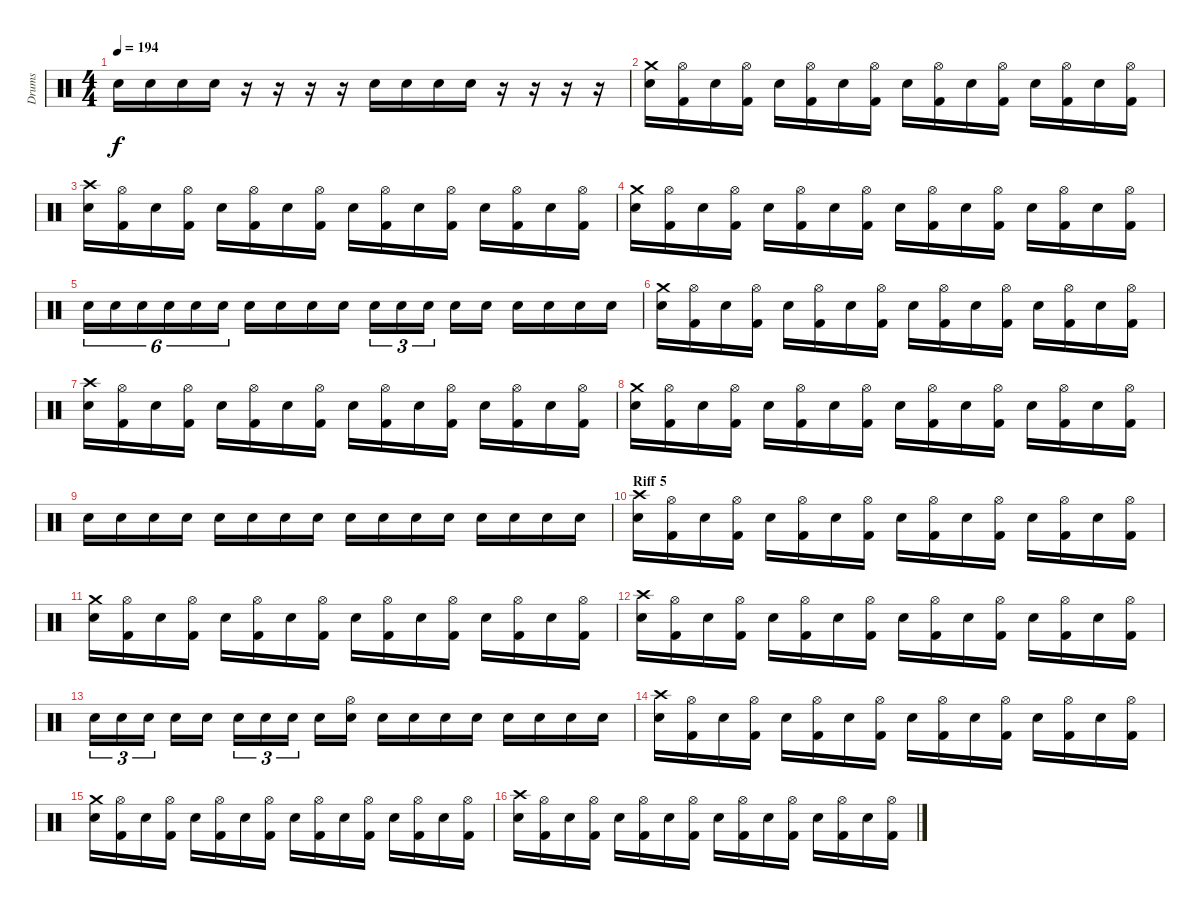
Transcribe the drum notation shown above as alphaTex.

\track ("Drums" "Drums") {instrument percussion}
\staff {score}
\articulation defaults
\ts (4 4)
\tempo 194
\clef neutral
\ks c "Electric Snare (hit)".16{dy f} "Electric Snare (hit)".16 "Electric Snare (hit)".16 "Electric Snare (hit)".16
r.16 r.16 r.16 r.16 "Electric Snare (hit)".16 "Electric Snare (hit)".16 "Electric Snare (hit)".16 "Electric Snare (hit)".16 r.16 r.16 r.16 r.16 |
("Crash medium (hit)" "Electric Snare (hit)").16 ("Hi-Hat (open)" "Kick (hit) 2").16 "Electric Snare (hit)".16 ("Hi-Hat (open)" "Kick (hit) 2").16 "Electric Snare (hit)".16 ("Hi-Hat (open)" "Kick (hit) 2").16 "Electric Snare (hit)".16 ("Hi-Hat (open)" "Kick (hit) 2").16 "Electric Snare (hit)".16 ("Hi-Hat (open)" "Kick (hit) 2").16 "Electric Snare (hit)".16 ("Hi-Hat (open)" "Kick (hit) 2").16 "Electric Snare (hit)".16 ("Hi-Hat (open)" "Kick (hit) 2").16 "Electric Snare (hit)".16 ("Hi-Hat (open)" "Kick (hit) 2").16 |
("Crash high (hit)" "Electric Snare (hit)").16 ("Hi-Hat (open)" "Kick (hit) 2").16 "Electric Snare (hit)".16 ("Hi-Hat (open)" "Kick (hit) 2").16 "Electric Snare (hit)".16 ("Hi-Hat (open)" "Kick (hit) 2").16 "Electric Snare (hit)".16 ("Hi-Hat (open)" "Kick (hit) 2").16 "Electric Snare (hit)".16 ("Hi-Hat (open)" "Kick (hit) 2").16 "Electric Snare (hit)".16 ("Hi-Hat (open)" "Kick (hit) 2").16 "Electric Snare (hit)".16 ("Hi-Hat (open)" "Kick (hit) 2").16 "Electric Snare (hit)".16 ("Hi-Hat (open)" "Kick (hit) 2").16 |
("Crash medium (hit)" "Electric Snare (hit)").16 ("Hi-Hat (open)" "Kick (hit) 2").16 "Electric Snare (hit)".16 ("Hi-Hat (open)" "Kick (hit) 2").16 "Electric Snare (hit)".16 ("Hi-Hat (open)" "Kick (hit) 2").16 "Electric Snare (hit)".16 ("Hi-Hat (open)" "Kick (hit) 2").16 "Electric Snare (hit)".16 ("Hi-Hat (open)" "Kick (hit) 2").16 "Electric Snare (hit)".16 ("Hi-Hat (open)" "Kick (hit) 2").16 "Electric Snare (hit)".16 ("Hi-Hat (open)" "Kick (hit) 2").16 "Electric Snare (hit)".16 ("Hi-Hat (open)" "Kick (hit) 2").16 |
"Electric Snare (hit)".16{tu (6 4)} "Electric Snare (hit)".16{tu (6 4)} "Electric Snare (hit)".16{tu (6 4)} "Electric Snare (hit)".16{tu (6 4)} "Electric Snare (hit)".16{tu (6 4)} "Electric Snare (hit)".16{tu (6 4)} "Electric Snare (hit)".16 "Electric Snare (hit)".16 "Electric Snare (hit)".16 "Electric Snare (hit)".16 "Electric Snare (hit)".16{tu (3 2)} "Electric Snare (hit)".16{tu (3 2)} "Electric Snare (hit)".16{tu (3 2)} "Electric Snare (hit)".16 "Electric Snare (hit)".16 "Electric Snare (hit)".16 "Electric Snare (hit)".16 "Electric Snare (hit)".16 "Electric Snare (hit)".16 |
("Crash medium (hit)" "Electric Snare (hit)").16 ("Hi-Hat (open)" "Kick (hit) 2").16 "Electric Snare (hit)".16 ("Hi-Hat (open)" "Kick (hit) 2").16 "Electric Snare (hit)".16 ("Hi-Hat (open)" "Kick (hit) 2").16 "Electric Snare (hit)".16 ("Hi-Hat (open)" "Kick (hit) 2").16 "Electric Snare (hit)".16 ("Hi-Hat (open)" "Kick (hit) 2").16 "Electric Snare (hit)".16 ("Hi-Hat (open)" "Kick (hit) 2").16 "Electric Snare (hit)".16 ("Hi-Hat (open)" "Kick (hit) 2").16 "Electric Snare (hit)".16 ("Hi-Hat (open)" "Kick (hit) 2").16 |
("Crash high (hit)" "Electric Snare (hit)").16 ("Hi-Hat (open)" "Kick (hit) 2").16 "Electric Snare (hit)".16 ("Hi-Hat (open)" "Kick (hit) 2").16 "Electric Snare (hit)".16 ("Hi-Hat (open)" "Kick (hit) 2").16 "Electric Snare (hit)".16 ("Hi-Hat (open)" "Kick (hit) 2").16 "Electric Snare (hit)".16 ("Hi-Hat (open)" "Kick (hit) 2").16 "Electric Snare (hit)".16 ("Hi-Hat (open)" "Kick (hit) 2").16 "Electric Snare (hit)".16 ("Hi-Hat (open)" "Kick (hit) 2").16 "Electric Snare (hit)".16 ("Hi-Hat (open)" "Kick (hit) 2").16 |
("Crash medium (hit)" "Electric Snare (hit)").16 ("Hi-Hat (open)" "Kick (hit) 2").16 "Electric Snare (hit)".16 ("Hi-Hat (open)" "Kick (hit) 2").16 "Electric Snare (hit)".16 ("Hi-Hat (open)" "Kick (hit) 2").16 "Electric Snare (hit)".16 ("Hi-Hat (open)" "Kick (hit) 2").16 "Electric Snare (hit)".16 ("Hi-Hat (open)" "Kick (hit) 2").16 "Electric Snare (hit)".16 ("Hi-Hat (open)" "Kick (hit) 2").16 "Electric Snare (hit)".16 ("Hi-Hat (open)" "Kick (hit) 2").16 "Electric Snare (hit)".16 ("Hi-Hat (open)" "Kick (hit) 2").16 |
"Electric Snare (hit)".16 "Electric Snare (hit)".16 "Electric Snare (hit)".16 "Electric Snare (hit)".16 "Electric Snare (hit)".16 "Electric Snare (hit)".16 "Electric Snare (hit)".16 "Electric Snare (hit)".16 "Electric Snare (hit)".16 "Electric Snare (hit)".16 "Electric Snare (hit)".16 "Electric Snare (hit)".16 "Electric Snare (hit)".16 "Electric Snare (hit)".16 "Electric Snare (hit)".16 "Electric Snare (hit)".16 |
\section ("" "Riff 5")
("Crash high (hit)" "Electric Snare (hit)").16 ("Hi-Hat (open)" "Kick (hit) 2").16 "Electric Snare (hit)".16 ("Hi-Hat (open)" "Kick (hit) 2").16 "Electric Snare (hit)".16 ("Hi-Hat (open)" "Kick (hit) 2").16 "Electric Snare (hit)".16 ("Hi-Hat (open)" "Kick (hit) 2").16 "Electric Snare (hit)".16 ("Hi-Hat (open)" "Kick (hit) 2").16 "Electric Snare (hit)".16 ("Hi-Hat (open)" "Kick (hit) 2").16 "Electric Snare (hit)".16 ("Hi-Hat (open)" "Kick (hit) 2").16 "Electric Snare (hit)".16 ("Hi-Hat (open)" "Kick (hit) 2").16 |
("Crash medium (hit)" "Electric Snare (hit)").16 ("Hi-Hat (open)" "Kick (hit) 2").16 "Electric Snare (hit)".16 ("Hi-Hat (open)" "Kick (hit) 2").16 "Electric Snare (hit)".16 ("Hi-Hat (open)" "Kick (hit) 2").16 "Electric Snare (hit)".16 ("Hi-Hat (open)" "Kick (hit) 2").16 "Electric Snare (hit)".16 ("Hi-Hat (open)" "Kick (hit) 2").16 "Electric Snare (hit)".16 ("Hi-Hat (open)" "Kick (hit) 2").16 "Electric Snare (hit)".16 ("Hi-Hat (open)" "Kick (hit) 2").16 "Electric Snare (hit)".16 ("Hi-Hat (open)" "Kick (hit) 2").16 |
("Crash high (hit)" "Electric Snare (hit)").16 ("Hi-Hat (open)" "Kick (hit) 2").16 "Electric Snare (hit)".16 ("Hi-Hat (open)" "Kick (hit) 2").16 "Electric Snare (hit)".16 ("Hi-Hat (open)" "Kick (hit) 2").16 "Electric Snare (hit)".16 ("Hi-Hat (open)" "Kick (hit) 2").16 "Electric Snare (hit)".16 ("Hi-Hat (open)" "Kick (hit) 2").16 "Electric Snare (hit)".16 ("Hi-Hat (open)" "Kick (hit) 2").16 "Electric Snare (hit)".16 ("Hi-Hat (open)" "Kick (hit) 2").16 "Electric Snare (hit)".16 ("Hi-Hat (open)" "Kick (hit) 2").16 |
"Electric Snare (hit)".16{tu (3 2)} "Electric Snare (hit)".16{tu (3 2)} "Electric Snare (hit)".16{tu (3 2)} "Electric Snare (hit)".16 "Electric Snare (hit)".16 "Electric Snare (hit)".16{tu (3 2)} "Electric Snare (hit)".16{tu (3 2)} "Electric Snare (hit)".16{tu (3 2)} "Electric Snare (hit)".16 ("Hi-Hat (open)" "Electric Snare (hit)").16 "Electric Snare (hit)".16 "Electric Snare (hit)".16 "Electric Snare (hit)".16 "Electric Snare (hit)".16 "Electric Snare (hit)".16 "Electric Snare (hit)".16 "Electric Snare (hit)".16 "Electric Snare (hit)".16 |
("Crash high (hit)" "Electric Snare (hit)").16 ("Hi-Hat (open)" "Kick (hit) 2").16 "Electric Snare (hit)".16 ("Hi-Hat (open)" "Kick (hit) 2").16 "Electric Snare (hit)".16 ("Hi-Hat (open)" "Kick (hit) 2").16 "Electric Snare (hit)".16 ("Hi-Hat (open)" "Kick (hit) 2").16 "Electric Snare (hit)".16 ("Hi-Hat (open)" "Kick (hit) 2").16 "Electric Snare (hit)".16 ("Hi-Hat (open)" "Kick (hit) 2").16 "Electric Snare (hit)".16 ("Hi-Hat (open)" "Kick (hit) 2").16 "Electric Snare (hit)".16 ("Hi-Hat (open)" "Kick (hit) 2").16 |
("Crash medium (hit)" "Electric Snare (hit)").16 ("Hi-Hat (open)" "Kick (hit) 2").16 "Electric Snare (hit)".16 ("Hi-Hat (open)" "Kick (hit) 2").16 "Electric Snare (hit)".16 ("Hi-Hat (open)" "Kick (hit) 2").16 "Electric Snare (hit)".16 ("Hi-Hat (open)" "Kick (hit) 2").16 "Electric Snare (hit)".16 ("Hi-Hat (open)" "Kick (hit) 2").16 "Electric Snare (hit)".16 ("Hi-Hat (open)" "Kick (hit) 2").16 "Electric Snare (hit)".16 ("Hi-Hat (open)" "Kick (hit) 2").16 "Electric Snare (hit)".16 ("Hi-Hat (open)" "Kick (hit) 2").16 |
("Crash high (hit)" "Electric Snare (hit)").16 ("Hi-Hat (open)" "Kick (hit) 2").16 "Electric Snare (hit)".16 ("Hi-Hat (open)" "Kick (hit) 2").16 "Electric Snare (hit)".16 ("Hi-Hat (open)" "Kick (hit) 2").16 "Electric Snare (hit)".16 ("Hi-Hat (open)" "Kick (hit) 2").16 "Electric Snare (hit)".16 ("Hi-Hat (open)" "Kick (hit) 2").16 "Electric Snare (hit)".16 ("Hi-Hat (open)" "Kick (hit) 2").16 "Electric Snare (hit)".16 ("Hi-Hat (open)" "Kick (hit) 2").16 "Electric Snare (hit)".16 ("Hi-Hat (open)" "Kick (hit) 2").16
